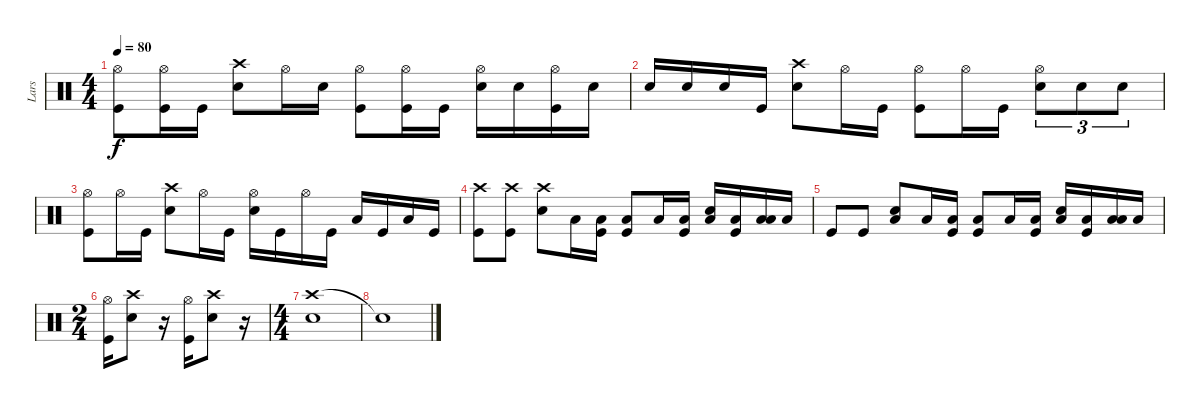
\track ("Lars" "Lars") {instrument percussion}
\staff {score}
\articulation defaults
\ts (4 4)
\tempo 80
\clef neutral
\ks c
("Hi-Hat (open)" "Kick (hit)").8{dy f} ("Hi-Hat (open)" "Kick (hit)").16 "Kick (hit)".16 ("Crash high (hit)" "Snare (hit) 2").8 "Hi-Hat (open)".16 "Snare (hit) 2".16 ("Hi-Hat (open)" "Kick (hit)").8 ("Hi-Hat (open)" "Kick (hit)").16 "Kick (hit)".16 ("Hi-Hat (open)" "Snare (hit) 2").16 "Snare (hit) 2".16 ("Hi-Hat (open)" "Kick (hit)").16 "Snare (hit) 2".16 |
"Snare (hit) 2".16 "Snare (hit) 2".16 "Snare (hit) 2".16 "Kick (hit)".16 ("Crash high (hit)" "Snare (hit) 2").8 "Hi-Hat (open)".16 "Kick (hit)".16 ("Hi-Hat (open)" "Kick (hit)").8 "Hi-Hat (open)".16 "Kick (hit)".16 ("Hi-Hat (open)" "Snare (hit) 2").8{tu (3 2)} "Snare (hit) 2".8{tu (3 2)} "Snare (hit) 2".8{tu (3 2)} |
("Hi-Hat (open)" "Kick (hit)").8 "Hi-Hat (open)".16 "Kick (hit)".16 ("Crash high (hit)" "Snare (hit) 2").8 "Hi-Hat (open)".16 "Kick (hit)".16 ("Hi-Hat (open)" "Snare (hit) 2").16 "Kick (hit)".16 "Hi-Hat (open)".16 "Kick (hit)".16 "Low Floor Tom (hit)".16 "Kick (hit)".16 "Low Floor Tom (hit)".16 "Kick (hit)".16 |
("Crash high (hit)" "Kick (hit)").8 ("Crash high (hit)" "Kick (hit)").8 ("Crash high (hit)" "Snare (hit) 2").8 "Low Floor Tom (hit)".16 ("Low Floor Tom (hit)" "Kick (hit)").16 ("Low Floor Tom (hit)" "Kick (hit)").8 "Low Floor Tom (hit)".16 ("Low Floor Tom (hit)" "Kick (hit)").16 ("Snare (hit) 2" "Low Floor Tom (hit)").16 ("Low Floor Tom (hit)" "Kick (hit)").16 ("Low Tom (hit)" "Low Floor Tom (hit)").16 "Low Floor Tom (hit)".16 |
"Kick (hit)".8 "Kick (hit)".8 ("Snare (hit) 2" "Low Floor Tom (hit)").8 "Low Floor Tom (hit)".16 ("Low Floor Tom (hit)" "Kick (hit)").16 ("Low Floor Tom (hit)" "Kick (hit)").8 "Low Floor Tom (hit)".16 ("Low Floor Tom (hit)" "Kick (hit)").16 ("Snare (hit) 2" "Low Floor Tom (hit)").16 ("Low Floor Tom (hit)" "Kick (hit)").16 ("Low Tom (hit)" "Low Floor Tom (hit)").16 "Low Floor Tom (hit)".16 |
\ts (2 4)
("Hi-Hat (open)" "Kick (hit)").16 ("Crash high (hit)" "Snare (hit) 2").8 r.16 ("Hi-Hat (open)" "Kick (hit)").16 ("Crash high (hit)" "Snare (hit) 2").8 r.16 |
\ts (4 4)
("Crash high (hit)" "Snare (hit) 2").1 |
"Snare (hit)"{t}.1
